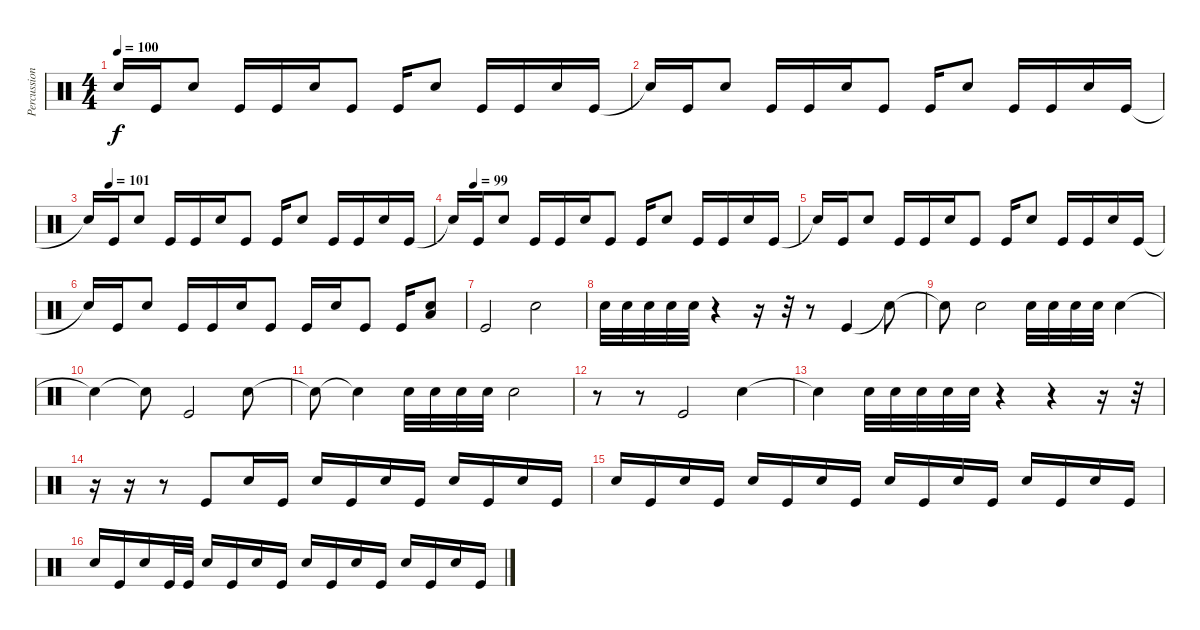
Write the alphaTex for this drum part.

\track ("Percussion" "Percussion") {instrument percussion}
\staff {score}
\articulation defaults
\ts (4 4)
\tempo 100
\clef neutral
\ks c "Snare (hit)"{t}.16{dy f} "Kick (hit)".16 "Electric Snare (hit)".8 "Kick (hit)".16 "Kick (hit)".16 "Electric Snare (hit)".16 "Kick (hit)".8 "Kick (hit)".16 "Electric Snare (hit)".8 "Kick (hit)".16 "Kick (hit)".16 "Electric Snare (hit)".16 "Kick (hit)".16
|
"Snare (hit)"{t}.16 "Kick (hit)".16 "Electric Snare (hit)".8 "Kick (hit)".16 "Kick (hit)".16 "Electric Snare (hit)".16 "Kick (hit)".8 "Kick (hit)".16 "Electric Snare (hit)".8 "Kick (hit)".16 "Kick (hit)".16 "Electric Snare (hit)".16 "Kick (hit)".16 |
\tempo (101 0.0625)
"Snare (hit)"{t}.16 "Kick (hit)".16 "Electric Snare (hit)".8 "Kick (hit)".16 "Kick (hit)".16 "Electric Snare (hit)".16 "Kick (hit)".8 "Kick (hit)".16 "Electric Snare (hit)".8 "Kick (hit)".16 "Kick (hit)".16 "Electric Snare (hit)".16 "Kick (hit)".16 |
\tempo (99 0.0625)
"Snare (hit)"{t}.16 "Kick (hit)".16 "Electric Snare (hit)".8 "Kick (hit)".16 "Kick (hit)".16 "Electric Snare (hit)".16 "Kick (hit)".8 "Kick (hit)".16 "Electric Snare (hit)".8 "Kick (hit)".16 "Kick (hit)".16 "Electric Snare (hit)".16 "Kick (hit)".16 |
"Snare (hit)"{t}.16 "Kick (hit)".16 "Electric Snare (hit)".8 "Kick (hit)".16 "Kick (hit)".16 "Electric Snare (hit)".16 "Kick (hit)".8 "Kick (hit)".16 "Electric Snare (hit)".8 "Kick (hit)".16 "Kick (hit)".16 "Electric Snare (hit)".16 "Kick (hit)".16 |
"Snare (hit)"{t}.16 "Kick (hit)".16 "Electric Snare (hit)".8 "Kick (hit)".16 "Kick (hit)".16 "Electric Snare (hit)".16 "Kick (hit)".8 "Kick (hit)".16 "Electric Snare (hit)".16 "Kick (hit)".8 "Kick (hit)".16 ("Electric Snare (hit)" "Low Floor Tom (hit)").8 |
"Kick (hit)".2 "Electric Snare (hit)".2 |
"Electric Snare (hit)".32 "Electric Snare (hit)".32 "Electric Snare (hit)".32 "Electric Snare (hit)".32 "Electric Snare (hit)".32 r.4 r.16 r.32 r.8 "Kick (hit)".4 "Snare (hit)"{t}.8 |
"Snare (hit)"{t}.8 "Electric Snare (hit)".2 "Electric Snare (hit)".32 "Electric Snare (hit)".32 "Electric Snare (hit)".32 "Electric Snare (hit)".32 "Electric Snare (hit)".4 |
"Snare (hit)"{t}.4 "Snare (hit)"{t}.8 "Kick (hit)".2 "Electric Snare (hit)".8 |
"Snare (hit)"{t}.8 "Snare (hit)"{t}.4 "Electric Snare (hit)".32 "Electric Snare (hit)".32 "Electric Snare (hit)".32 "Electric Snare (hit)".32 "Electric Snare (hit)".2 |
r.8 r.8 "Kick (hit)".2 "Electric Snare (hit)".4 |
"Snare (hit)"{t}.4 "Electric Snare (hit)".32 "Electric Snare (hit)".32 "Electric Snare (hit)".32 "Electric Snare (hit)".32 "Electric Snare (hit)".32 r.4 r.4 r.16 r.32 |
r.16 r.16 r.8 "Kick (hit)".8 "Electric Snare (hit)".16 "Kick (hit)".16 "Electric Snare (hit)".16 "Kick (hit)".16 "Electric Snare (hit)".16 "Kick (hit)".16 "Electric Snare (hit)".16 "Kick (hit)".16 "Electric Snare (hit)".16 "Kick (hit)".16 |
"Electric Snare (hit)".16 "Kick (hit)".16 "Electric Snare (hit)".16 "Kick (hit)".16 "Electric Snare (hit)".16 "Kick (hit)".16 "Electric Snare (hit)".16 "Kick (hit)".16 "Electric Snare (hit)".16 "Kick (hit)".16 "Electric Snare (hit)".16 "Kick (hit)".16 "Electric Snare (hit)".16 "Kick (hit)".16 "Electric Snare (hit)".16 "Kick (hit)".16 |
"Electric Snare (hit)".16 "Kick (hit)".16 "Electric Snare (hit)".16 "Kick (hit)".32 "Kick (hit)".32 "Electric Snare (hit)".16 "Kick (hit)".16 "Electric Snare (hit)".16 "Kick (hit)".16 "Electric Snare (hit)".16 "Kick (hit)".16 "Electric Snare (hit)".16 "Kick (hit)".16 "Electric Snare (hit)".16 "Kick (hit)".16 "Electric Snare (hit)".16 "Kick (hit)".16
